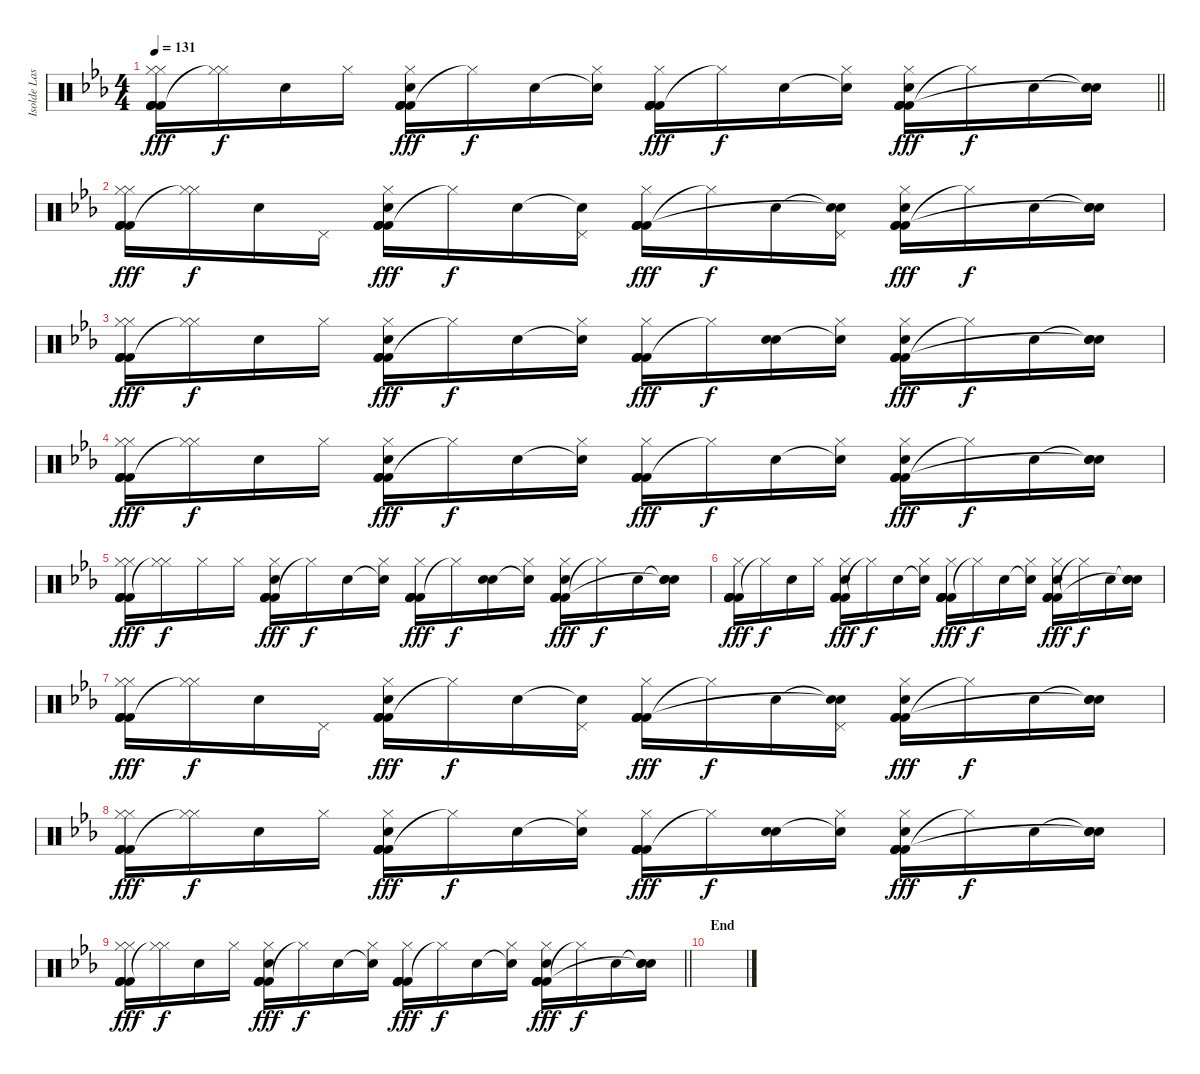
\track ("Isolde Lasoen (Percussion)" "Isolde Las") {instrument percussion}
\staff {score}
\articulation defaults
\ts (4 4)
\tempo 131
\clef neutral
\barLineRight lightlight
\ks cminor
("Hi-Hat (closed)" "Kick (hit) 2" "Kick (hit) 2" "Kick (hit) 2" "Hi-Hat (closed)" "Kick (hit) 2").16{dy fff} ("Hi-Hat (closed)" "Hi-Hat (closed)"{t}).16{dy f} "Hand Clap (hit)".16 "Hi-Hat (closed)".16 ("Kick (hit) 2" "Kick (hit) 2" "Kick (hit) 2" "Kick (hit) 2" "Hi-Hat (closed)" "Hand Clap (hit)").16{dy fff} "Hi-Hat (closed)"{t}.16{dy f} "Hand Clap (hit)".16 ("Snare (hit)"{t} "Hi-Hat (closed)").16 ("Kick (hit) 2" "Kick (hit) 2" "Kick (hit) 2" "Kick (hit) 2" "Hi-Hat (closed)" "Kick (hit) 2").16{dy fff} "Hi-Hat (closed)"{t}.16{dy f} "Hand Clap (hit)".16 ("Snare (hit)"{t} "Hi-Hat (closed)").16 ("Kick (hit) 2" "Kick (hit) 2" "Kick (hit) 2" "Kick (hit) 2" "Hi-Hat (closed)" "Hand Clap (hit)").16{dy fff} "Hi-Hat (closed)"{t}.16{dy f} "Hand Clap (hit)".16 ("Snare (hit)"{t} "Hand Clap (hit)" "Snare (hit)"{t}).16 |
("Hi-Hat (closed)" "Kick (hit) 2" "Kick (hit) 2" "Kick (hit) 2" "Hi-Hat (closed)" "Kick (hit) 2").16{dy fff} ("Hi-Hat (closed)" "Hi-Hat (closed)"{t}).16{dy f} "Hand Clap (hit)".16 "Pedal Hi-Hat (hit)".16 ("Kick (hit) 2" "Kick (hit) 2" "Kick (hit) 2" "Kick (hit) 2" "Hi-Hat (closed)" "Hand Clap (hit)").16{dy fff} "Hi-Hat (closed)"{t}.16{dy f} "Hand Clap (hit)".16 ("Snare (hit)"{t} "Pedal Hi-Hat (hit)").16 ("Kick (hit) 2" "Kick (hit) 2" "Kick (hit) 2" "Kick (hit) 2" "Hi-Hat (closed)" "Kick (hit) 2").16{dy fff} "Hi-Hat (closed)"{t}.16{dy f} "Hand Clap (hit)".16 ("Snare (hit)"{t} "Snare (hit)"{t} "Pedal Hi-Hat (hit)").16 ("Kick (hit) 2" "Kick (hit) 2" "Kick (hit) 2" "Hi-Hat (closed)" "Hand Clap (hit)").16{dy fff} "Hi-Hat (closed)"{t}.16{dy f} "Hand Clap (hit)".16 ("Snare (hit)"{t} "Hand Clap (hit)" "Snare (hit)"{t}).16 |
("Hi-Hat (closed)" "Kick (hit) 2" "Kick (hit) 2" "Kick (hit) 2" "Hi-Hat (closed)" "Kick (hit) 2").16{dy fff} ("Hi-Hat (closed)" "Hi-Hat (closed)"{t}).16{dy f} "Hand Clap (hit)".16 "Hi-Hat (closed)".16 ("Kick (hit) 2" "Kick (hit) 2" "Kick (hit) 2" "Kick (hit) 2" "Hi-Hat (closed)" "Hand Clap (hit)").16{dy fff} "Hi-Hat (closed)"{t}.16{dy f} "Hand Clap (hit)".16 ("Snare (hit)"{t} "Hi-Hat (closed)").16 ("Kick (hit) 2" "Kick (hit) 2" "Kick (hit) 2" "Kick (hit) 2" "Hi-Hat (closed)" "Kick (hit) 2").16{dy fff} "Hi-Hat (closed)"{t}.16{dy f} ("Hand Clap (hit)" "Hand Clap (hit)").16 ("Snare (hit)"{t} "Hi-Hat (closed)").16 ("Kick (hit) 2" "Kick (hit) 2" "Kick (hit) 2" "Kick (hit) 2" "Hi-Hat (closed)" "Hand Clap (hit)").16{dy fff} "Hi-Hat (closed)"{t}.16{dy f} "Hand Clap (hit)".16 ("Snare (hit)"{t} "Hand Clap (hit)" "Snare (hit)"{t}).16 |
("Hi-Hat (closed)" "Kick (hit) 2" "Kick (hit) 2" "Kick (hit) 2" "Hi-Hat (closed)" "Kick (hit) 2").16{dy fff} ("Hi-Hat (closed)" "Hi-Hat (closed)"{t}).16{dy f} "Hand Clap (hit)".16 "Hi-Hat (closed)".16 ("Kick (hit) 2" "Kick (hit) 2" "Kick (hit) 2" "Kick (hit) 2" "Hi-Hat (closed)" "Hand Clap (hit)").16{dy fff} "Hi-Hat (closed)"{t}.16{dy f} "Hand Clap (hit)".16 ("Snare (hit)"{t} "Hi-Hat (closed)").16 ("Kick (hit) 2" "Kick (hit) 2" "Kick (hit) 2" "Kick (hit) 2" "Hi-Hat (closed)" "Kick (hit) 2").16{dy fff} "Hi-Hat (closed)"{t}.16{dy f} "Hand Clap (hit)".16 ("Snare (hit)"{t} "Hi-Hat (closed)").16 ("Kick (hit) 2" "Kick (hit) 2" "Kick (hit) 2" "Kick (hit) 2" "Hi-Hat (closed)" "Hand Clap (hit)").16{dy fff} "Hi-Hat (closed)"{t}.16{dy f} "Hand Clap (hit)".16 ("Snare (hit)"{t} "Hand Clap (hit)" "Snare (hit)"{t}).16 |
("Hi-Hat (closed)" "Kick (hit) 2" "Kick (hit) 2" "Kick (hit) 2" "Hi-Hat (closed)" "Kick (hit) 2").16{dy fff} ("Hi-Hat (closed)" "Hi-Hat (closed)"{t}).16{dy f} "Hi-Hat (closed)".16 "Hi-Hat (closed)".16 ("Kick (hit) 2" "Kick (hit) 2" "Kick (hit) 2" "Kick (hit) 2" "Hi-Hat (closed)" "Hand Clap (hit)").16{dy fff} "Hi-Hat (closed)"{t}.16{dy f} "Hand Clap (hit)".16 ("Snare (hit)"{t} "Hi-Hat (closed)").16 ("Kick (hit) 2" "Kick (hit) 2" "Kick (hit) 2" "Kick (hit) 2" "Hi-Hat (closed)" "Kick (hit) 2").16{dy fff} "Hi-Hat (closed)"{t}.16{dy f} ("Hand Clap (hit)" "Hand Clap (hit)").16 ("Snare (hit)"{t} "Hi-Hat (closed)").16 ("Kick (hit) 2" "Kick (hit) 2" "Kick (hit) 2" "Kick (hit) 2" "Hi-Hat (closed)" "Hand Clap (hit)").16{dy fff} "Hi-Hat (closed)"{t}.16{dy f} "Hand Clap (hit)".16 ("Snare (hit)"{t} "Hand Clap (hit)" "Snare (hit)"{t}).16 |
("Kick (hit) 2" "Kick (hit) 2" "Kick (hit) 2" "Kick (hit) 2" "Hi-Hat (closed)" "Kick (hit) 2").16{dy fff} "Hi-Hat (closed)"{t}.16{dy f} "Hand Clap (hit)".16 "Hi-Hat (closed)".16 ("Kick (hit) 2" "Kick (hit) 2" "Kick (hit) 2" "Kick (hit) 2" "Hi-Hat (closed)" "Hand Clap (hit)").16{dy fff} "Hi-Hat (closed)"{t}.16{dy f} "Hand Clap (hit)".16 ("Snare (hit)"{t} "Hi-Hat (closed)").16 ("Kick (hit) 2" "Kick (hit) 2" "Kick (hit) 2" "Kick (hit) 2" "Hi-Hat (closed)" "Kick (hit) 2").16{dy fff} "Hi-Hat (closed)"{t}.16{dy f} "Hand Clap (hit)".16 ("Snare (hit)"{t} "Hi-Hat (closed)").16 ("Kick (hit) 2" "Kick (hit) 2" "Kick (hit) 2" "Kick (hit) 2" "Hi-Hat (closed)" "Hand Clap (hit)").16{dy fff} "Hi-Hat (closed)"{t}.16{dy f} "Hand Clap (hit)".16 ("Snare (hit)"{t} "Hand Clap (hit)" "Snare (hit)"{t}).16 |
("Hi-Hat (closed)" "Kick (hit) 2" "Kick (hit) 2" "Kick (hit) 2" "Hi-Hat (closed)" "Kick (hit) 2").16{dy fff} ("Hi-Hat (closed)" "Hi-Hat (closed)"{t}).16{dy f} "Hand Clap (hit)".16 "Pedal Hi-Hat (hit)".16 ("Kick (hit) 2" "Kick (hit) 2" "Kick (hit) 2" "Kick (hit) 2" "Hi-Hat (closed)" "Hand Clap (hit)").16{dy fff} "Hi-Hat (closed)"{t}.16{dy f} "Hand Clap (hit)".16 ("Snare (hit)"{t} "Pedal Hi-Hat (hit)").16 ("Kick (hit) 2" "Kick (hit) 2" "Kick (hit) 2" "Kick (hit) 2" "Hi-Hat (closed)" "Kick (hit) 2").16{dy fff} "Hi-Hat (closed)"{t}.16{dy f} "Hand Clap (hit)".16 ("Snare (hit)"{t} "Snare (hit)"{t} "Pedal Hi-Hat (hit)").16 ("Kick (hit) 2" "Kick (hit) 2" "Kick (hit) 2" "Hi-Hat (closed)" "Hand Clap (hit)").16{dy fff} "Hi-Hat (closed)"{t}.16{dy f} "Hand Clap (hit)".16 ("Snare (hit)"{t} "Hand Clap (hit)" "Snare (hit)"{t}).16 |
("Hi-Hat (closed)" "Kick (hit) 2" "Kick (hit) 2" "Kick (hit) 2" "Hi-Hat (closed)" "Kick (hit) 2").16{dy fff} ("Hi-Hat (closed)" "Hi-Hat (closed)"{t}).16{dy f} "Hand Clap (hit)".16 "Hi-Hat (closed)".16 ("Kick (hit) 2" "Kick (hit) 2" "Kick (hit) 2" "Kick (hit) 2" "Hi-Hat (closed)" "Hand Clap (hit)").16{dy fff} "Hi-Hat (closed)"{t}.16{dy f} "Hand Clap (hit)".16 ("Snare (hit)"{t} "Hi-Hat (closed)").16 ("Kick (hit) 2" "Kick (hit) 2" "Kick (hit) 2" "Kick (hit) 2" "Hi-Hat (closed)" "Kick (hit) 2").16{dy fff} "Hi-Hat (closed)"{t}.16{dy f} ("Hand Clap (hit)" "Hand Clap (hit)").16 ("Snare (hit)"{t} "Hi-Hat (closed)").16 ("Kick (hit) 2" "Kick (hit) 2" "Kick (hit) 2" "Kick (hit) 2" "Hi-Hat (closed)" "Hand Clap (hit)").16{dy fff} "Hi-Hat (closed)"{t}.16{dy f} "Hand Clap (hit)".16 ("Snare (hit)"{t} "Hand Clap (hit)" "Snare (hit)"{t}).16 |
\barLineRight lightlight
("Hi-Hat (closed)" "Kick (hit) 2" "Kick (hit) 2" "Kick (hit) 2" "Hi-Hat (closed)" "Kick (hit) 2").16{dy fff} ("Hi-Hat (closed)" "Hi-Hat (closed)"{t}).16{dy f} "Hand Clap (hit)".16 "Hi-Hat (closed)".16 ("Kick (hit) 2" "Kick (hit) 2" "Kick (hit) 2" "Kick (hit) 2" "Hi-Hat (closed)" "Hand Clap (hit)").16{dy fff} "Hi-Hat (closed)"{t}.16{dy f} "Hand Clap (hit)".16 ("Snare (hit)"{t} "Hi-Hat (closed)").16 ("Kick (hit) 2" "Kick (hit) 2" "Kick (hit) 2" "Kick (hit) 2" "Hi-Hat (closed)" "Kick (hit) 2").16{dy fff} "Hi-Hat (closed)"{t}.16{dy f} "Hand Clap (hit)".16 ("Snare (hit)"{t} "Hi-Hat (closed)").16 ("Kick (hit) 2" "Kick (hit) 2" "Kick (hit) 2" "Kick (hit) 2" "Hi-Hat (closed)" "Hand Clap (hit)").16{dy fff} "Hi-Hat (closed)"{t}.16{dy f} "Hand Clap (hit)".16 ("Snare (hit)"{t} "Hand Clap (hit)" "Snare (hit)"{t}).16 |
\section ("" "End")
